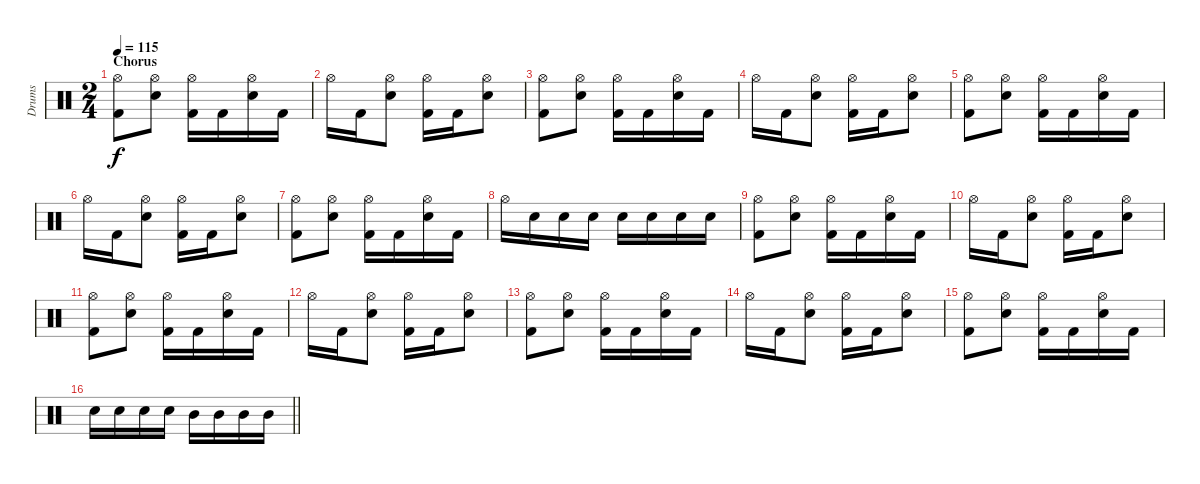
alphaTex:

\track ("Drums" "Drums") {instrument percussion}
\staff {score}
\articulation defaults
\ts (2 4)
\section ("" "Chorus")
\tempo 115
\clef neutral
\ks c
("Hi-Hat (open)" "Kick (hit) 2").8{dy f} ("Hi-Hat (open)" "Electric Snare (hit)").8 ("Hi-Hat (open)" "Kick (hit) 2").16 "Kick (hit) 2".16 ("Hi-Hat (open)" "Electric Snare (hit)").16 "Kick (hit) 2".16 |
"Hi-Hat (open)".16 "Kick (hit) 2".16 ("Hi-Hat (open)" "Electric Snare (hit)").8 ("Hi-Hat (open)" "Kick (hit) 2").16 "Kick (hit) 2".16 ("Hi-Hat (open)" "Electric Snare (hit)").8 |
("Hi-Hat (open)" "Kick (hit) 2").8 ("Hi-Hat (open)" "Electric Snare (hit)").8 ("Hi-Hat (open)" "Kick (hit) 2").16 "Kick (hit) 2".16 ("Hi-Hat (open)" "Electric Snare (hit)").16 "Kick (hit) 2".16 |
"Hi-Hat (open)".16 "Kick (hit) 2".16 ("Hi-Hat (open)" "Electric Snare (hit)").8 ("Hi-Hat (open)" "Kick (hit) 2").16 "Kick (hit) 2".16 ("Hi-Hat (open)" "Electric Snare (hit)").8 |
("Hi-Hat (open)" "Kick (hit) 2").8 ("Hi-Hat (open)" "Electric Snare (hit)").8 ("Hi-Hat (open)" "Kick (hit) 2").16 "Kick (hit) 2".16 ("Hi-Hat (open)" "Electric Snare (hit)").16 "Kick (hit) 2".16 |
"Hi-Hat (open)".16 "Kick (hit) 2".16 ("Hi-Hat (open)" "Electric Snare (hit)").8 ("Hi-Hat (open)" "Kick (hit) 2").16 "Kick (hit) 2".16 ("Hi-Hat (open)" "Electric Snare (hit)").8 |
("Hi-Hat (open)" "Kick (hit) 2").8 ("Hi-Hat (open)" "Electric Snare (hit)").8 ("Hi-Hat (open)" "Kick (hit) 2").16 "Kick (hit) 2".16 ("Hi-Hat (open)" "Electric Snare (hit)").16 "Kick (hit) 2".16 |
"Hi-Hat (open)".16 "Electric Snare (hit)".16 "Electric Snare (hit)".16 "Electric Snare (hit)".16 "Electric Snare (hit)".16 "Electric Snare (hit)".16 "Electric Snare (hit)".16 "Electric Snare (hit)".16 |
("Hi-Hat (open)" "Kick (hit) 2").8 ("Hi-Hat (open)" "Electric Snare (hit)").8 ("Hi-Hat (open)" "Kick (hit) 2").16 "Kick (hit) 2".16 ("Hi-Hat (open)" "Electric Snare (hit)").16 "Kick (hit) 2".16 |
"Hi-Hat (open)".16 "Kick (hit) 2".16 ("Hi-Hat (open)" "Electric Snare (hit)").8 ("Hi-Hat (open)" "Kick (hit) 2").16 "Kick (hit) 2".16 ("Hi-Hat (open)" "Electric Snare (hit)").8 |
("Hi-Hat (open)" "Kick (hit) 2").8 ("Hi-Hat (open)" "Electric Snare (hit)").8 ("Hi-Hat (open)" "Kick (hit) 2").16 "Kick (hit) 2".16 ("Hi-Hat (open)" "Electric Snare (hit)").16 "Kick (hit) 2".16 |
"Hi-Hat (open)".16 "Kick (hit) 2".16 ("Hi-Hat (open)" "Electric Snare (hit)").8 ("Hi-Hat (open)" "Kick (hit) 2").16 "Kick (hit) 2".16 ("Hi-Hat (open)" "Electric Snare (hit)").8 |
("Hi-Hat (open)" "Kick (hit) 2").8 ("Hi-Hat (open)" "Electric Snare (hit)").8 ("Hi-Hat (open)" "Kick (hit) 2").16 "Kick (hit) 2".16 ("Hi-Hat (open)" "Electric Snare (hit)").16 "Kick (hit) 2".16 |
"Hi-Hat (open)".16 "Kick (hit) 2".16 ("Hi-Hat (open)" "Electric Snare (hit)").8 ("Hi-Hat (open)" "Kick (hit) 2").16 "Kick (hit) 2".16 ("Hi-Hat (open)" "Electric Snare (hit)").8 |
("Hi-Hat (open)" "Kick (hit) 2").8 ("Hi-Hat (open)" "Electric Snare (hit)").8 ("Hi-Hat (open)" "Kick (hit) 2").16 "Kick (hit) 2".16 ("Hi-Hat (open)" "Electric Snare (hit)").16 "Kick (hit) 2".16 |
\barLineRight lightlight "Electric Snare (hit)".16 "Electric Snare (hit)".16 "Electric Snare (hit)".16 "Electric Snare (hit)".16 "Mid Tom (hit)".16 "Mid Tom (hit)".16 "Mid Tom (hit)".16 "Mid Tom (hit)".16
